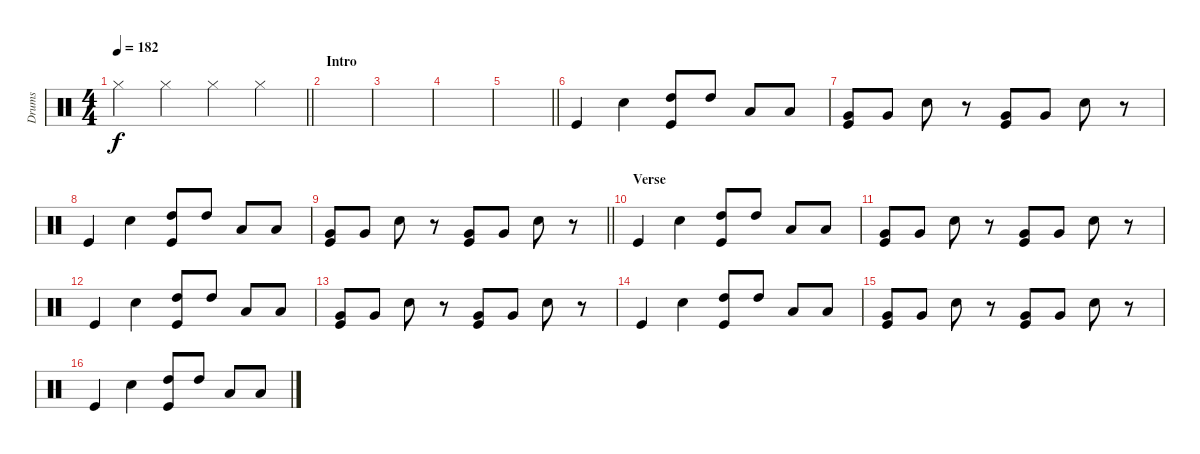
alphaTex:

\track ("Drums" "Drums") {instrument percussion}
\staff {score}
\articulation defaults
\ts (4 4)
\tempo 182
\clef neutral
\barLineRight lightlight
\ks c "Hi-Hat (closed)".4{dy f} "Hi-Hat (closed)".4 "Hi-Hat (closed)".4 "Hi-Hat (closed)".4
|
\section ("" "Intro")
|
|
|
\barLineRight lightlight
|
"Kick (hit)".4 "Snare (hit) 2".4 ("High Tom (hit)" "Kick (hit)").8 "High Tom (hit)".8 "Low Tom (hit)".8 "Low Tom (hit)".8 |
("Very Low Tom (hit)" "Kick (hit)").8 "Very Low Tom (hit)".8 "Snare (hit) 2".8 r.8 ("Very Low Tom (hit)" "Kick (hit)").8 "Very Low Tom (hit)".8 "Snare (hit) 2".8 r.8 |
"Kick (hit)".4 "Snare (hit) 2".4 ("High Tom (hit)" "Kick (hit)").8 "High Tom (hit)".8 "Low Tom (hit)".8 "Low Tom (hit)".8 |
\barLineRight lightlight
("Very Low Tom (hit)" "Kick (hit)").8 "Very Low Tom (hit)".8 "Snare (hit) 2".8 r.8 ("Very Low Tom (hit)" "Kick (hit)").8 "Very Low Tom (hit)".8 "Snare (hit) 2".8 r.8 |
\section ("" "Verse")
"Kick (hit)".4 "Snare (hit) 2".4 ("High Tom (hit)" "Kick (hit)").8 "High Tom (hit)".8 "Low Tom (hit)".8 "Low Tom (hit)".8 |
("Very Low Tom (hit)" "Kick (hit)").8 "Very Low Tom (hit)".8 "Snare (hit) 2".8 r.8 ("Very Low Tom (hit)" "Kick (hit)").8 "Very Low Tom (hit)".8 "Snare (hit) 2".8 r.8 |
"Kick (hit)".4 "Snare (hit) 2".4 ("High Tom (hit)" "Kick (hit)").8 "High Tom (hit)".8 "Low Tom (hit)".8 "Low Tom (hit)".8 |
("Very Low Tom (hit)" "Kick (hit)").8 "Very Low Tom (hit)".8 "Snare (hit) 2".8 r.8 ("Very Low Tom (hit)" "Kick (hit)").8 "Very Low Tom (hit)".8 "Snare (hit) 2".8 r.8 |
"Kick (hit)".4 "Snare (hit) 2".4 ("High Tom (hit)" "Kick (hit)").8 "High Tom (hit)".8 "Low Tom (hit)".8 "Low Tom (hit)".8 |
("Very Low Tom (hit)" "Kick (hit)").8 "Very Low Tom (hit)".8 "Snare (hit) 2".8 r.8 ("Very Low Tom (hit)" "Kick (hit)").8 "Very Low Tom (hit)".8 "Snare (hit) 2".8 r.8 |
"Kick (hit)".4 "Snare (hit) 2".4 ("High Tom (hit)" "Kick (hit)").8 "High Tom (hit)".8 "Low Tom (hit)".8 "Low Tom (hit)".8
